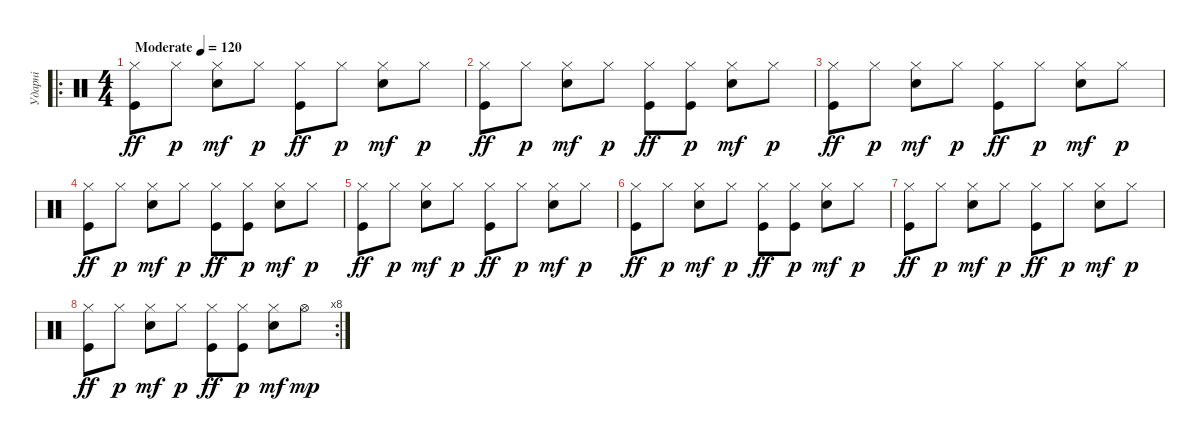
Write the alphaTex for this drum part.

\track ("Ударні" "Ударні") {instrument percussion}
\staff {score}
\articulation defaults
\ro
\ts (4 4)
\tempo (120 "Moderate")
\clef neutral
\ks c
("Hi-Hat (closed)" "Kick (hit)").8{dy ff} "Hi-Hat (closed)".8{dy p} ("Hi-Hat (closed)" "Snare (hit) 2").8{dy mf} "Hi-Hat (closed)".8{dy p} ("Hi-Hat (closed)" "Kick (hit)").8{dy ff} "Hi-Hat (closed)".8{dy p} ("Hi-Hat (closed)" "Snare (hit) 2").8{dy mf} "Hi-Hat (closed)".8{dy p} |
("Hi-Hat (closed)" "Kick (hit)").8{dy ff} "Hi-Hat (closed)".8{dy p} ("Hi-Hat (closed)" "Snare (hit) 2").8{dy mf} "Hi-Hat (closed)".8{dy p} ("Hi-Hat (closed)" "Kick (hit)").8{dy ff} ("Hi-Hat (closed)" "Kick (hit)").8{dy p} ("Hi-Hat (closed)" "Snare (hit) 2").8{dy mf} "Hi-Hat (closed)".8{dy p} |
("Hi-Hat (closed)" "Kick (hit)").8{dy ff} "Hi-Hat (closed)".8{dy p} ("Hi-Hat (closed)" "Snare (hit) 2").8{dy mf} "Hi-Hat (closed)".8{dy p} ("Hi-Hat (closed)" "Kick (hit)").8{dy ff} "Hi-Hat (closed)".8{dy p} ("Hi-Hat (closed)" "Snare (hit) 2").8{dy mf} "Hi-Hat (closed)".8{dy p} |
("Hi-Hat (closed)" "Kick (hit)").8{dy ff} "Hi-Hat (closed)".8{dy p} ("Hi-Hat (closed)" "Snare (hit) 2").8{dy mf} "Hi-Hat (closed)".8{dy p} ("Hi-Hat (closed)" "Kick (hit)").8{dy ff} ("Hi-Hat (closed)" "Kick (hit)").8{dy p} ("Hi-Hat (closed)" "Snare (hit) 2").8{dy mf} "Hi-Hat (closed)".8{dy p} |
("Hi-Hat (closed)" "Kick (hit)").8{dy ff} "Hi-Hat (closed)".8{dy p} ("Hi-Hat (closed)" "Snare (hit) 2").8{dy mf} "Hi-Hat (closed)".8{dy p} ("Hi-Hat (closed)" "Kick (hit)").8{dy ff} "Hi-Hat (closed)".8{dy p} ("Hi-Hat (closed)" "Snare (hit) 2").8{dy mf} "Hi-Hat (closed)".8{dy p} |
("Hi-Hat (closed)" "Kick (hit)").8{dy ff} "Hi-Hat (closed)".8{dy p} ("Hi-Hat (closed)" "Snare (hit) 2").8{dy mf} "Hi-Hat (closed)".8{dy p} ("Hi-Hat (closed)" "Kick (hit)").8{dy ff} ("Hi-Hat (closed)" "Kick (hit)").8{dy p} ("Hi-Hat (closed)" "Snare (hit) 2").8{dy mf} "Hi-Hat (closed)".8{dy p} |
("Hi-Hat (closed)" "Kick (hit)").8{dy ff} "Hi-Hat (closed)".8{dy p} ("Hi-Hat (closed)" "Snare (hit) 2").8{dy mf} "Hi-Hat (closed)".8{dy p} ("Hi-Hat (closed)" "Kick (hit)").8{dy ff} "Hi-Hat (closed)".8{dy p} ("Hi-Hat (closed)" "Snare (hit) 2").8{dy mf} "Hi-Hat (closed)".8{dy p} |
\rc 8
("Hi-Hat (closed)" "Kick (hit)").8{dy ff} "Hi-Hat (closed)".8{dy p} ("Hi-Hat (closed)" "Snare (hit) 2").8{dy mf} "Hi-Hat (closed)".8{dy p} ("Hi-Hat (closed)" "Kick (hit)").8{dy ff} ("Hi-Hat (closed)" "Kick (hit)").8{dy p} ("Hi-Hat (closed)" "Snare (hit) 2").8{dy mf} "Hi-Hat (open)".8{dy mp}
